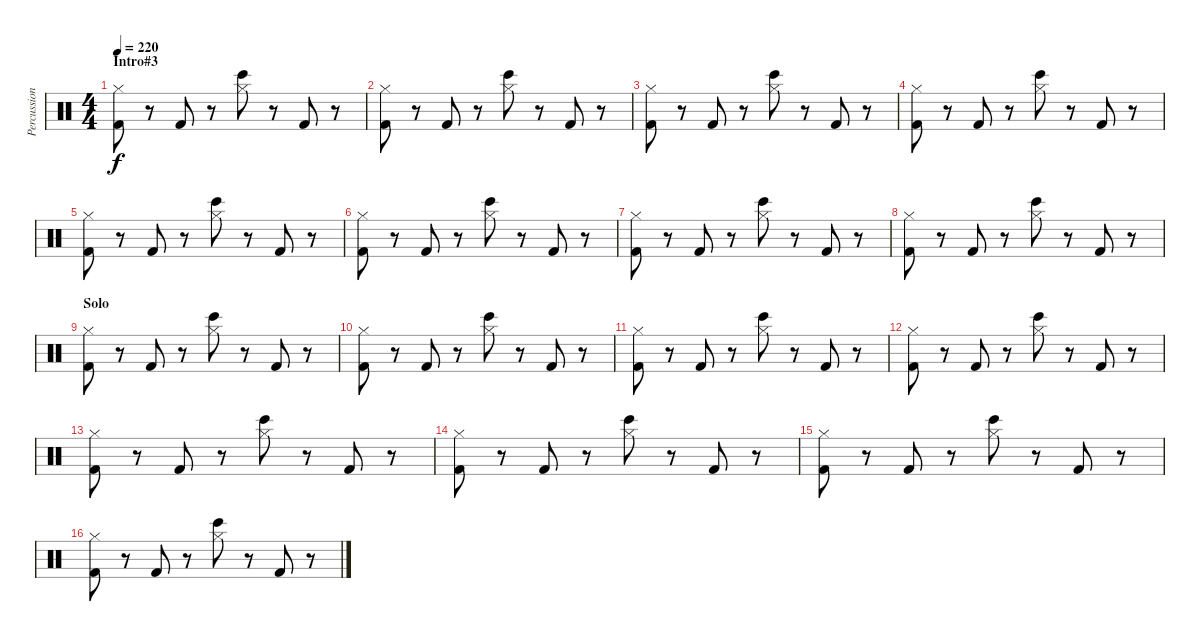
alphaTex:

\track ("Percussion" "Percussion") {instrument percussion}
\staff {score}
\articulation defaults
\ts (4 4)
\section ("" "Intro#3")
\tempo 220
\clef neutral
\ks c
("Kick (hit) 2" "Hi-Hat (closed)").8{dy f} r.8 "Kick (hit) 2".8 r.8 ("Bongo High (hit)" "Hi-Hat (closed)").8 r.8 "Kick (hit) 2".8 r.8 |
("Kick (hit) 2" "Hi-Hat (closed)").8 r.8 "Kick (hit) 2".8 r.8 ("Bongo High (hit)" "Hi-Hat (closed)").8 r.8 "Kick (hit) 2".8 r.8 |
("Kick (hit) 2" "Hi-Hat (closed)").8 r.8 "Kick (hit) 2".8 r.8 ("Bongo High (hit)" "Hi-Hat (closed)").8 r.8 "Kick (hit) 2".8 r.8 |
("Kick (hit) 2" "Hi-Hat (closed)").8 r.8 "Kick (hit) 2".8 r.8 ("Bongo High (hit)" "Hi-Hat (closed)").8 r.8 "Kick (hit) 2".8 r.8 |
("Kick (hit) 2" "Hi-Hat (closed)").8 r.8 "Kick (hit) 2".8 r.8 ("Bongo High (hit)" "Hi-Hat (closed)").8 r.8 "Kick (hit) 2".8 r.8 |
("Kick (hit) 2" "Hi-Hat (closed)").8 r.8 "Kick (hit) 2".8 r.8 ("Bongo High (hit)" "Hi-Hat (closed)").8 r.8 "Kick (hit) 2".8 r.8 |
("Kick (hit) 2" "Hi-Hat (closed)").8 r.8 "Kick (hit) 2".8 r.8 ("Bongo High (hit)" "Hi-Hat (closed)").8 r.8 "Kick (hit) 2".8 r.8 |
("Kick (hit) 2" "Hi-Hat (closed)").8 r.8 "Kick (hit) 2".8 r.8 ("Bongo High (hit)" "Hi-Hat (closed)").8 r.8 "Kick (hit) 2".8 r.8 |
\section ("" "Solo")
("Kick (hit) 2" "Hi-Hat (closed)").8 r.8 "Kick (hit) 2".8 r.8 ("Bongo High (hit)" "Hi-Hat (closed)").8 r.8 "Kick (hit) 2".8 r.8 |
("Kick (hit) 2" "Hi-Hat (closed)").8 r.8 "Kick (hit) 2".8 r.8 ("Bongo High (hit)" "Hi-Hat (closed)").8 r.8 "Kick (hit) 2".8 r.8 |
("Kick (hit) 2" "Hi-Hat (closed)").8 r.8 "Kick (hit) 2".8 r.8 ("Bongo High (hit)" "Hi-Hat (closed)").8 r.8 "Kick (hit) 2".8 r.8 |
("Kick (hit) 2" "Hi-Hat (closed)").8 r.8 "Kick (hit) 2".8 r.8 ("Bongo High (hit)" "Hi-Hat (closed)").8 r.8 "Kick (hit) 2".8 r.8 |
("Kick (hit) 2" "Hi-Hat (closed)").8 r.8 "Kick (hit) 2".8 r.8 ("Bongo High (hit)" "Hi-Hat (closed)").8 r.8 "Kick (hit) 2".8 r.8 |
("Kick (hit) 2" "Hi-Hat (closed)").8 r.8 "Kick (hit) 2".8 r.8 ("Bongo High (hit)" "Hi-Hat (closed)").8 r.8 "Kick (hit) 2".8 r.8 |
("Kick (hit) 2" "Hi-Hat (closed)").8 r.8 "Kick (hit) 2".8 r.8 ("Bongo High (hit)" "Hi-Hat (closed)").8 r.8 "Kick (hit) 2".8 r.8 |
("Kick (hit) 2" "Hi-Hat (closed)").8 r.8 "Kick (hit) 2".8 r.8 ("Bongo High (hit)" "Hi-Hat (closed)").8 r.8 "Kick (hit) 2".8 r.8
